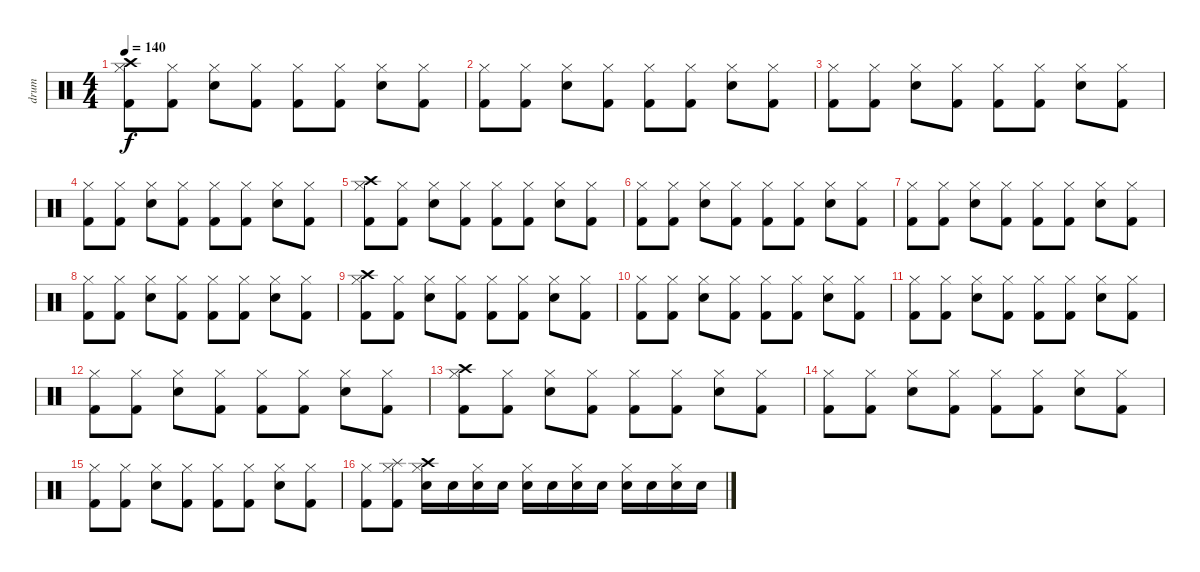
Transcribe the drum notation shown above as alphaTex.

\track ("drum" "drum") {instrument percussion}
\staff {score}
\articulation defaults
\ts (4 4)
\tempo 140
\clef neutral
\ks c
("Crash high (hit)" "Hi-Hat (closed)" "Kick (hit) 2").8{dy f} ("Hi-Hat (closed)" "Kick (hit) 2").8 ("Hi-Hat (closed)" "Electric Snare (hit)").8 ("Hi-Hat (closed)" "Kick (hit) 2").8 ("Hi-Hat (closed)" "Kick (hit) 2").8 ("Hi-Hat (closed)" "Kick (hit) 2").8 ("Hi-Hat (closed)" "Electric Snare (hit)").8 ("Hi-Hat (closed)" "Kick (hit) 2").8 |
("Hi-Hat (closed)" "Kick (hit) 2").8 ("Hi-Hat (closed)" "Kick (hit) 2").8 ("Hi-Hat (closed)" "Electric Snare (hit)").8 ("Hi-Hat (closed)" "Kick (hit) 2").8 ("Hi-Hat (closed)" "Kick (hit) 2").8 ("Hi-Hat (closed)" "Kick (hit) 2").8 ("Hi-Hat (closed)" "Electric Snare (hit)").8 ("Hi-Hat (closed)" "Kick (hit) 2").8 |
("Hi-Hat (closed)" "Kick (hit) 2").8 ("Hi-Hat (closed)" "Kick (hit) 2").8 ("Hi-Hat (closed)" "Electric Snare (hit)").8 ("Hi-Hat (closed)" "Kick (hit) 2").8 ("Hi-Hat (closed)" "Kick (hit) 2").8 ("Hi-Hat (closed)" "Kick (hit) 2").8 ("Hi-Hat (closed)" "Electric Snare (hit)").8 ("Hi-Hat (closed)" "Kick (hit) 2").8 |
("Hi-Hat (closed)" "Kick (hit) 2").8 ("Hi-Hat (closed)" "Kick (hit) 2").8 ("Hi-Hat (closed)" "Electric Snare (hit)").8 ("Hi-Hat (closed)" "Kick (hit) 2").8 ("Hi-Hat (closed)" "Kick (hit) 2").8 ("Hi-Hat (closed)" "Kick (hit) 2").8 ("Hi-Hat (closed)" "Electric Snare (hit)").8 ("Hi-Hat (closed)" "Kick (hit) 2").8 |
("Crash high (hit)" "Hi-Hat (closed)" "Kick (hit) 2").8 ("Hi-Hat (closed)" "Kick (hit) 2").8 ("Hi-Hat (closed)" "Electric Snare (hit)").8 ("Hi-Hat (closed)" "Kick (hit) 2").8 ("Hi-Hat (closed)" "Kick (hit) 2").8 ("Hi-Hat (closed)" "Kick (hit) 2").8 ("Hi-Hat (closed)" "Electric Snare (hit)").8 ("Hi-Hat (closed)" "Kick (hit) 2").8 |
("Hi-Hat (closed)" "Kick (hit) 2").8 ("Hi-Hat (closed)" "Kick (hit) 2").8 ("Hi-Hat (closed)" "Electric Snare (hit)").8 ("Hi-Hat (closed)" "Kick (hit) 2").8 ("Hi-Hat (closed)" "Kick (hit) 2").8 ("Hi-Hat (closed)" "Kick (hit) 2").8 ("Hi-Hat (closed)" "Electric Snare (hit)").8 ("Hi-Hat (closed)" "Kick (hit) 2").8 |
("Hi-Hat (closed)" "Kick (hit) 2").8 ("Hi-Hat (closed)" "Kick (hit) 2").8 ("Hi-Hat (closed)" "Electric Snare (hit)").8 ("Hi-Hat (closed)" "Kick (hit) 2").8 ("Hi-Hat (closed)" "Kick (hit) 2").8 ("Hi-Hat (closed)" "Kick (hit) 2").8 ("Hi-Hat (closed)" "Electric Snare (hit)").8 ("Hi-Hat (closed)" "Kick (hit) 2").8 |
("Hi-Hat (closed)" "Kick (hit) 2").8 ("Hi-Hat (closed)" "Kick (hit) 2").8 ("Hi-Hat (closed)" "Electric Snare (hit)").8 ("Hi-Hat (closed)" "Kick (hit) 2").8 ("Hi-Hat (closed)" "Kick (hit) 2").8 ("Hi-Hat (closed)" "Kick (hit) 2").8 ("Hi-Hat (closed)" "Electric Snare (hit)").8 ("Hi-Hat (closed)" "Kick (hit) 2").8 |
("Crash high (hit)" "Hi-Hat (closed)" "Kick (hit) 2").8 ("Hi-Hat (closed)" "Kick (hit) 2").8 ("Hi-Hat (closed)" "Electric Snare (hit)").8 ("Hi-Hat (closed)" "Kick (hit) 2").8 ("Hi-Hat (closed)" "Kick (hit) 2").8 ("Hi-Hat (closed)" "Kick (hit) 2").8 ("Hi-Hat (closed)" "Electric Snare (hit)").8 ("Hi-Hat (closed)" "Kick (hit) 2").8 |
("Hi-Hat (closed)" "Kick (hit) 2").8 ("Hi-Hat (closed)" "Kick (hit) 2").8 ("Hi-Hat (closed)" "Electric Snare (hit)").8 ("Hi-Hat (closed)" "Kick (hit) 2").8 ("Hi-Hat (closed)" "Kick (hit) 2").8 ("Hi-Hat (closed)" "Kick (hit) 2").8 ("Hi-Hat (closed)" "Electric Snare (hit)").8 ("Hi-Hat (closed)" "Kick (hit) 2").8 |
("Hi-Hat (closed)" "Kick (hit) 2").8 ("Hi-Hat (closed)" "Kick (hit) 2").8 ("Hi-Hat (closed)" "Electric Snare (hit)").8 ("Hi-Hat (closed)" "Kick (hit) 2").8 ("Hi-Hat (closed)" "Kick (hit) 2").8 ("Hi-Hat (closed)" "Kick (hit) 2").8 ("Hi-Hat (closed)" "Electric Snare (hit)").8 ("Hi-Hat (closed)" "Kick (hit) 2").8 |
("Hi-Hat (closed)" "Kick (hit) 2").8 ("Hi-Hat (closed)" "Kick (hit) 2").8 ("Hi-Hat (closed)" "Electric Snare (hit)").8 ("Hi-Hat (closed)" "Kick (hit) 2").8 ("Hi-Hat (closed)" "Kick (hit) 2").8 ("Hi-Hat (closed)" "Kick (hit) 2").8 ("Hi-Hat (closed)" "Electric Snare (hit)").8 ("Hi-Hat (closed)" "Kick (hit) 2").8 |
("Crash high (hit)" "Hi-Hat (closed)" "Kick (hit) 2").8 ("Hi-Hat (closed)" "Kick (hit) 2").8 ("Hi-Hat (closed)" "Electric Snare (hit)").8 ("Hi-Hat (closed)" "Kick (hit) 2").8 ("Hi-Hat (closed)" "Kick (hit) 2").8 ("Hi-Hat (closed)" "Kick (hit) 2").8 ("Hi-Hat (closed)" "Electric Snare (hit)").8 ("Hi-Hat (closed)" "Kick (hit) 2").8 |
("Hi-Hat (closed)" "Kick (hit) 2").8 ("Hi-Hat (closed)" "Kick (hit) 2").8 ("Hi-Hat (closed)" "Electric Snare (hit)").8 ("Hi-Hat (closed)" "Kick (hit) 2").8 ("Hi-Hat (closed)" "Kick (hit) 2").8 ("Hi-Hat (closed)" "Kick (hit) 2").8 ("Hi-Hat (closed)" "Electric Snare (hit)").8 ("Hi-Hat (closed)" "Kick (hit) 2").8 |
("Hi-Hat (closed)" "Kick (hit) 2").8 ("Hi-Hat (closed)" "Kick (hit) 2").8 ("Hi-Hat (closed)" "Electric Snare (hit)").8 ("Hi-Hat (closed)" "Kick (hit) 2").8 ("Hi-Hat (closed)" "Kick (hit) 2").8 ("Hi-Hat (closed)" "Kick (hit) 2").8 ("Hi-Hat (closed)" "Electric Snare (hit)").8 ("Hi-Hat (closed)" "Kick (hit) 2").8 |
("Hi-Hat (closed)" "Kick (hit) 2").8 ("Splash (hit)" "Hi-Hat (closed)" "Kick (hit) 2").8 ("Crash high (hit)" "Hi-Hat (closed)" "Electric Snare (hit)").16 "Electric Snare (hit)".16 ("Hi-Hat (closed)" "Electric Snare (hit)").16 "Electric Snare (hit)".16 ("Hi-Hat (closed)" "Electric Snare (hit)").16 "Electric Snare (hit)".16 ("Hi-Hat (closed)" "Electric Snare (hit)").16 "Electric Snare (hit)".16 ("Hi-Hat (closed)" "Electric Snare (hit)").16 "Electric Snare (hit)".16 ("Hi-Hat (closed)" "Electric Snare (hit)").16 "Electric Snare (hit)".16
